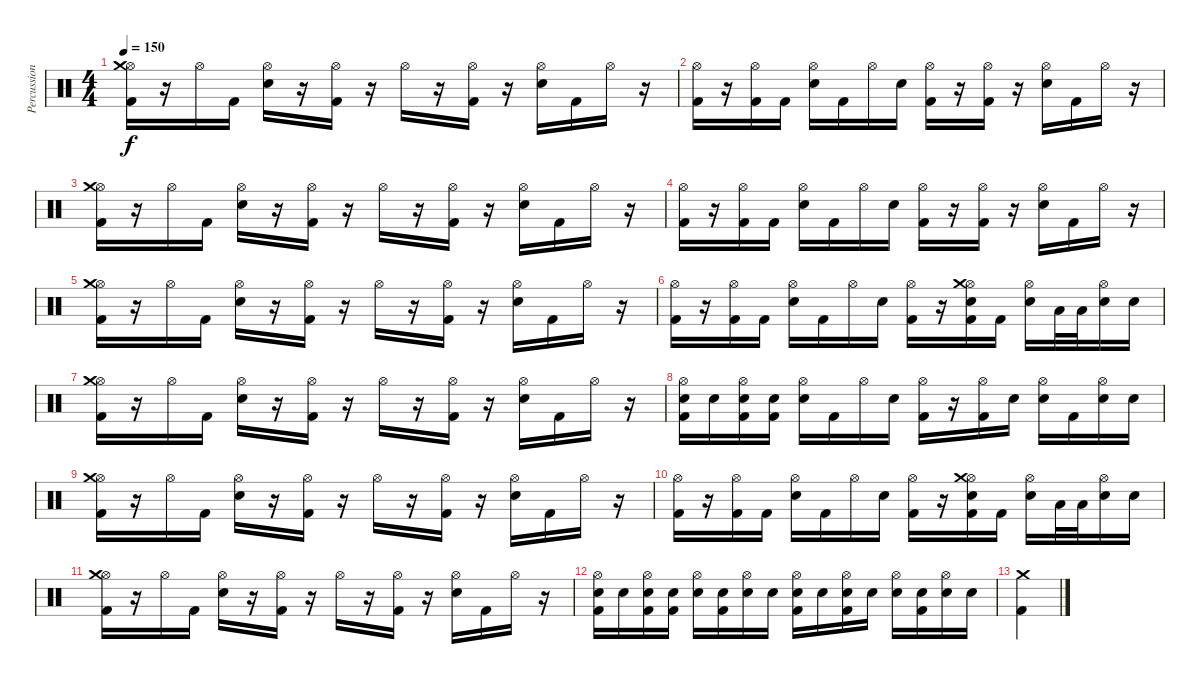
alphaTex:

\track ("Percussion" "Percussion") {instrument percussion}
\staff {score}
\articulation defaults
\ts (4 4)
\tempo 150
\clef neutral
\ks c
("Hi-Hat (open)" "Crash medium (hit)" "Kick (hit) 2").16{dy f} r.16 "Hi-Hat (open)".16 "Kick (hit) 2".16 ("Hi-Hat (open)" "Electric Snare (hit)").16 r.16 ("Hi-Hat (open)" "Kick (hit) 2").16 r.16 "Hi-Hat (open)".16 r.16 ("Hi-Hat (open)" "Kick (hit) 2").16 r.16 ("Hi-Hat (open)" "Electric Snare (hit)").16 "Kick (hit) 2".16 "Hi-Hat (open)".16 r.16 |
("Hi-Hat (open)" "Kick (hit) 2").16 r.16 ("Hi-Hat (open)" "Kick (hit) 2").16 "Kick (hit) 2".16 ("Hi-Hat (open)" "Electric Snare (hit)").16 "Kick (hit) 2".16 "Hi-Hat (open)".16 "Electric Snare (hit)".16 ("Hi-Hat (open)" "Kick (hit) 2").16 r.16 ("Hi-Hat (open)" "Kick (hit) 2").16 r.16 ("Hi-Hat (open)" "Electric Snare (hit)").16 "Kick (hit) 2".16 "Hi-Hat (open)".16 r.16 |
("Hi-Hat (open)" "Crash medium (hit)" "Kick (hit) 2").16 r.16 "Hi-Hat (open)".16 "Kick (hit) 2".16 ("Hi-Hat (open)" "Electric Snare (hit)").16 r.16 ("Hi-Hat (open)" "Kick (hit) 2").16 r.16 "Hi-Hat (open)".16 r.16 ("Hi-Hat (open)" "Kick (hit) 2").16 r.16 ("Hi-Hat (open)" "Electric Snare (hit)").16 "Kick (hit) 2".16 "Hi-Hat (open)".16 r.16 |
("Hi-Hat (open)" "Kick (hit) 2").16 r.16 ("Hi-Hat (open)" "Kick (hit) 2").16 "Kick (hit) 2".16 ("Hi-Hat (open)" "Electric Snare (hit)").16 "Kick (hit) 2".16 "Hi-Hat (open)".16 "Electric Snare (hit)".16 ("Hi-Hat (open)" "Kick (hit) 2").16 r.16 ("Hi-Hat (open)" "Kick (hit) 2").16 r.16 ("Hi-Hat (open)" "Electric Snare (hit)").16 "Kick (hit) 2".16 "Hi-Hat (open)".16 r.16 |
("Hi-Hat (open)" "Crash medium (hit)" "Kick (hit) 2").16 r.16 "Hi-Hat (open)".16 "Kick (hit) 2".16 ("Hi-Hat (open)" "Electric Snare (hit)").16 r.16 ("Hi-Hat (open)" "Kick (hit) 2").16 r.16 "Hi-Hat (open)".16 r.16 ("Hi-Hat (open)" "Kick (hit) 2").16 r.16 ("Hi-Hat (open)" "Electric Snare (hit)").16 "Kick (hit) 2".16 "Hi-Hat (open)".16 r.16 |
("Hi-Hat (open)" "Kick (hit) 2").16 r.16 ("Hi-Hat (open)" "Kick (hit) 2").16 "Kick (hit) 2".16 ("Hi-Hat (open)" "Electric Snare (hit)").16 "Kick (hit) 2".16 "Hi-Hat (open)".16 "Electric Snare (hit)".16 ("Hi-Hat (open)" "Kick (hit) 2").16 r.16 ("Hi-Hat (open)" "Crash medium (hit)" "Electric Snare (hit)" "Kick (hit) 2").16 "Kick (hit) 2".16 ("Hi-Hat (open)" "Electric Snare (hit)").16 "Low Tom (hit)".32 "Low Tom (hit)".32 ("Hi-Hat (open)" "Electric Snare (hit)").16 "Electric Snare (hit)".16 |
("Hi-Hat (open)" "Crash medium (hit)" "Kick (hit) 2").16 r.16 "Hi-Hat (open)".16 "Kick (hit) 2".16 ("Hi-Hat (open)" "Electric Snare (hit)").16 r.16 ("Hi-Hat (open)" "Kick (hit) 2").16 r.16 "Hi-Hat (open)".16 r.16 ("Hi-Hat (open)" "Kick (hit) 2").16 r.16 ("Hi-Hat (open)" "Electric Snare (hit)").16 "Kick (hit) 2".16 "Hi-Hat (open)".16 r.16 |
("Hi-Hat (open)" "Electric Snare (hit)" "Kick (hit) 2").16 "Electric Snare (hit)".16 ("Hi-Hat (open)" "Electric Snare (hit)" "Kick (hit) 2").16 ("Electric Snare (hit)" "Kick (hit) 2").16 ("Hi-Hat (open)" "Electric Snare (hit)").16 "Kick (hit) 2".16 "Hi-Hat (open)".16 "Electric Snare (hit)".16 ("Hi-Hat (open)" "Kick (hit) 2").16 r.16 ("Hi-Hat (open)" "Kick (hit) 2").16 "Electric Snare (hit)".16 ("Hi-Hat (open)" "Electric Snare (hit)").16 "Kick (hit) 2".16 ("Hi-Hat (open)" "Electric Snare (hit)").16 "Electric Snare (hit)".16 |
("Hi-Hat (open)" "Crash medium (hit)" "Kick (hit) 2").16 r.16 "Hi-Hat (open)".16 "Kick (hit) 2".16 ("Hi-Hat (open)" "Electric Snare (hit)").16 r.16 ("Hi-Hat (open)" "Kick (hit) 2").16 r.16 "Hi-Hat (open)".16 r.16 ("Hi-Hat (open)" "Kick (hit) 2").16 r.16 ("Hi-Hat (open)" "Electric Snare (hit)").16 "Kick (hit) 2".16 "Hi-Hat (open)".16 r.16 |
("Hi-Hat (open)" "Kick (hit) 2").16 r.16 ("Hi-Hat (open)" "Kick (hit) 2").16 "Kick (hit) 2".16 ("Hi-Hat (open)" "Electric Snare (hit)").16 "Kick (hit) 2".16 "Hi-Hat (open)".16 "Electric Snare (hit)".16 ("Hi-Hat (open)" "Kick (hit) 2").16 r.16 ("Hi-Hat (open)" "Crash medium (hit)" "Electric Snare (hit)" "Kick (hit) 2").16 "Kick (hit) 2".16 ("Hi-Hat (open)" "Electric Snare (hit)").16 "Low Tom (hit)".32 "Low Tom (hit)".32 ("Hi-Hat (open)" "Electric Snare (hit)").16 "Electric Snare (hit)".16 |
("Hi-Hat (open)" "Crash medium (hit)" "Kick (hit) 2").16 r.16 "Hi-Hat (open)".16 "Kick (hit) 2".16 ("Hi-Hat (open)" "Electric Snare (hit)").16 r.16 ("Hi-Hat (open)" "Kick (hit) 2").16 r.16 "Hi-Hat (open)".16 r.16 ("Hi-Hat (open)" "Kick (hit) 2").16 r.16 ("Hi-Hat (open)" "Electric Snare (hit)").16 "Kick (hit) 2".16 "Hi-Hat (open)".16 r.16 |
("Hi-Hat (open)" "Electric Snare (hit)" "Kick (hit) 2").16 "Electric Snare (hit)".16 ("Hi-Hat (open)" "Electric Snare (hit)" "Kick (hit) 2").16 ("Electric Snare (hit)" "Kick (hit) 2").16 ("Hi-Hat (open)" "Electric Snare (hit)").16 ("Electric Snare (hit)" "Kick (hit) 2").16 ("Hi-Hat (open)" "Electric Snare (hit)").16 "Electric Snare (hit)".16 ("Hi-Hat (open)" "Electric Snare (hit)" "Kick (hit) 2").16 "Electric Snare (hit)".16 ("Hi-Hat (open)" "Electric Snare (hit)" "Kick (hit) 2").16 "Electric Snare (hit)".16 ("Hi-Hat (open)" "Electric Snare (hit)").16 ("Electric Snare (hit)" "Kick (hit) 2").16 ("Hi-Hat (open)" "Electric Snare (hit)").16 "Electric Snare (hit)".16 |
("Crash medium (hit)" "Kick (hit) 2").4
